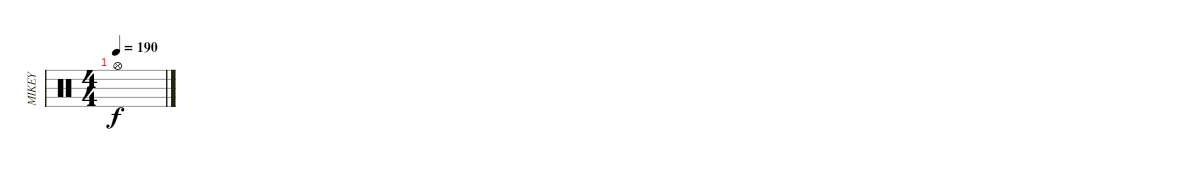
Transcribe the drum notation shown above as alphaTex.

\track ("MIKEY" "MIKEY") {instrument percussion}
\staff {score}
\articulation defaults
\ts (4 4)
\tempo 190
\clef neutral
\ks c "Hi-Hat (open)".1{dy f}
